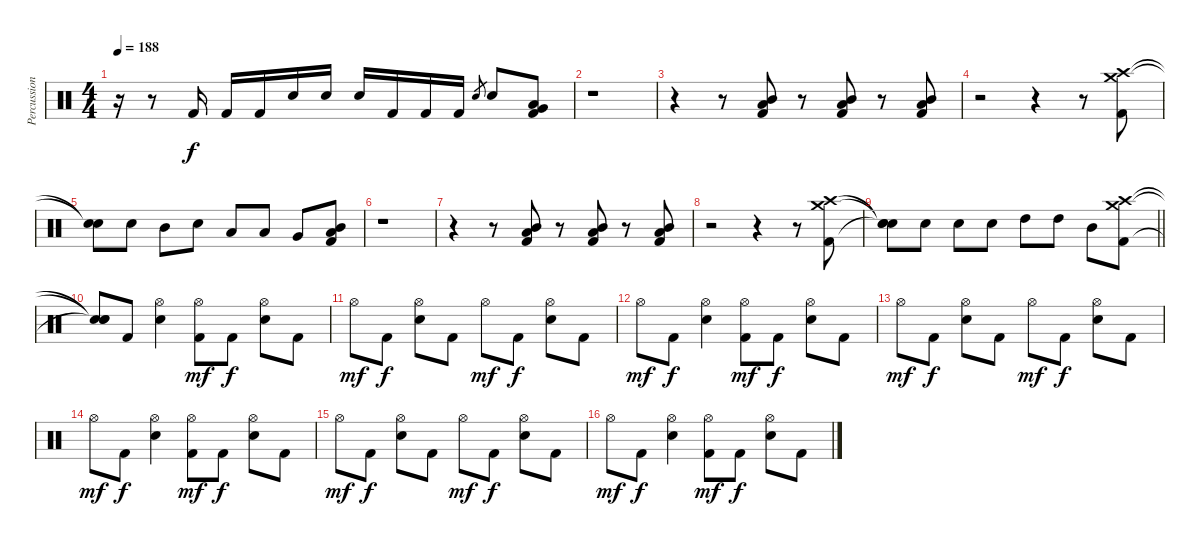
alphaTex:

\track ("Percussion" "Percussion") {instrument percussion}
\staff {score}
\articulation defaults
\ts (4 4)
\tempo 188
\clef neutral
\ks c
r.16{dy f} r.8 "Kick (hit) 2".16 "Kick (hit) 2".16 "Kick (hit) 2".16 "Electric Snare (hit)".16 "Electric Snare (hit)".16 "Electric Snare (hit)".16 "Kick (hit) 2".16 "Kick (hit) 2".16 "Kick (hit) 2".16 "Electric Snare (hit)".8{gr} "Electric Snare (hit)".8 ("Low Tom (hit)" "Very Low Tom (hit)" "Kick (hit) 2").8 |
r.1 |
r.4 r.8 ("Mid Tom (hit)" "Low Tom (hit)" "Kick (hit) 2").8 r.8 ("Mid Tom (hit)" "Low Tom (hit)" "Kick (hit) 2").8 r.8 ("Mid Tom (hit)" "Low Tom (hit)" "Kick (hit) 2").8 |
r.2 r.4 r.8 ("Crash high (hit)" "Crash medium (hit)" "Kick (hit) 2").8 |
("Snare (hit)"{t} "Snare (hit)"{t}).8 "Electric Snare (hit)".8 "Mid Tom (hit)".8 "Electric Snare (hit)".8 "Low Tom (hit)".8 "Low Tom (hit)".8 "Very Low Tom (hit)".8 ("Mid Tom (hit)" "Low Tom (hit)" "Kick (hit) 2").8 |
r.1 |
r.4 r.8 ("Mid Tom (hit)" "Low Tom (hit)" "Kick (hit) 2").8 r.8 ("Mid Tom (hit)" "Low Tom (hit)" "Kick (hit) 2").8 r.8 ("Mid Tom (hit)" "Low Tom (hit)" "Kick (hit) 2").8 |
r.2 r.4 r.8 ("Crash high (hit)" "Crash medium (hit)" "Kick (hit) 2").8 |
\barLineRight lightlight
("Snare (hit)"{t} "Snare (hit)"{t} "Snare (hit)"{t}).8 "Electric Snare (hit)".8 "Electric Snare (hit)".8 "Electric Snare (hit)".8 "High Tom (hit)".8 "High Tom (hit)".8 "Mid Tom (hit)".8 ("Crash high (hit)" "Crash medium (hit)" "Kick (hit) 2").8 |
("Snare (hit)"{t} "Snare (hit)"{t} "Snare (hit)"{t}).8 "Kick (hit) 2".8 ("Hi-Hat (open)" "Electric Snare (hit)").4 ("Hi-Hat (open)" "Kick (hit) 2").8{dy mf} "Kick (hit) 2".8{dy f} ("Hi-Hat (open)" "Electric Snare (hit)").8 "Kick (hit) 2".8 |
"Hi-Hat (open)".8{dy mf} "Kick (hit) 2".8{dy f} ("Hi-Hat (open)" "Electric Snare (hit)").8 "Kick (hit) 2".8 "Hi-Hat (open)".8{dy mf} "Kick (hit) 2".8{dy f} ("Hi-Hat (open)" "Electric Snare (hit)").8 "Kick (hit) 2".8 |
"Hi-Hat (open)".8{dy mf} "Kick (hit) 2".8{dy f} ("Hi-Hat (open)" "Electric Snare (hit)").4 ("Hi-Hat (open)" "Kick (hit) 2").8{dy mf} "Kick (hit) 2".8{dy f} ("Hi-Hat (open)" "Electric Snare (hit)").8 "Kick (hit) 2".8 |
"Hi-Hat (open)".8{dy mf} "Kick (hit) 2".8{dy f} ("Hi-Hat (open)" "Electric Snare (hit)").8 "Kick (hit) 2".8 "Hi-Hat (open)".8{dy mf} "Kick (hit) 2".8{dy f} ("Hi-Hat (open)" "Electric Snare (hit)").8 "Kick (hit) 2".8 |
"Hi-Hat (open)".8{dy mf} "Kick (hit) 2".8{dy f} ("Hi-Hat (open)" "Electric Snare (hit)").4 ("Hi-Hat (open)" "Kick (hit) 2").8{dy mf} "Kick (hit) 2".8{dy f} ("Hi-Hat (open)" "Electric Snare (hit)").8 "Kick (hit) 2".8 |
"Hi-Hat (open)".8{dy mf} "Kick (hit) 2".8{dy f} ("Hi-Hat (open)" "Electric Snare (hit)").8 "Kick (hit) 2".8 "Hi-Hat (open)".8{dy mf} "Kick (hit) 2".8{dy f} ("Hi-Hat (open)" "Electric Snare (hit)").8 "Kick (hit) 2".8 |
"Hi-Hat (open)".8{dy mf} "Kick (hit) 2".8{dy f} ("Hi-Hat (open)" "Electric Snare (hit)").4 ("Hi-Hat (open)" "Kick (hit) 2").8{dy mf} "Kick (hit) 2".8{dy f} ("Hi-Hat (open)" "Electric Snare (hit)").8 "Kick (hit) 2".8
